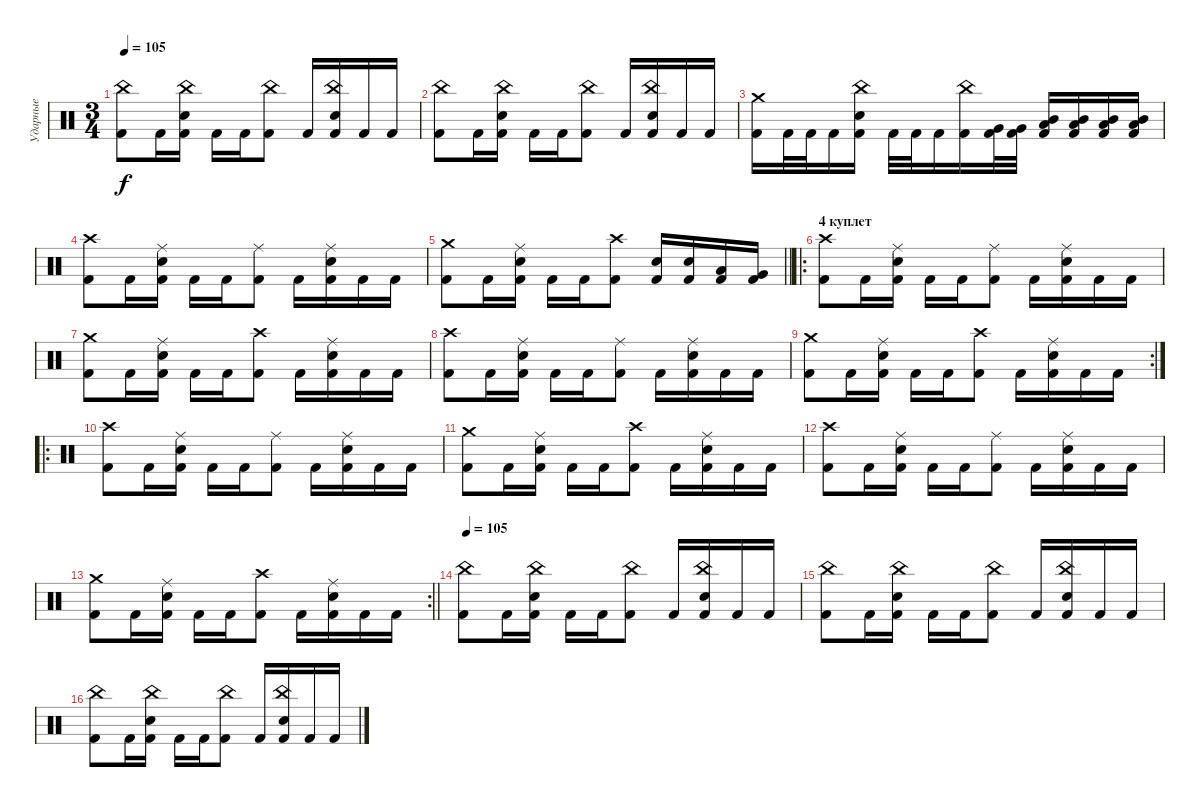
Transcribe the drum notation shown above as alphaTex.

\track ("Ударные" "Ударные") {instrument percussion}
\staff {score}
\articulation defaults
\ts (3 4)
\tempo 105
\clef neutral
\ks c
("Kick (hit) 2" "China (hit)").8{dy f} "Kick (hit) 2".16 ("Kick (hit) 2" "Snare (hit) 2" "China (hit)").16 "Kick (hit) 2".16 "Kick (hit) 2".16 ("Kick (hit) 2" "China (hit)").8 "Kick (hit) 2".16 ("Kick (hit) 2" "Snare (hit) 2" "China (hit)").16 "Kick (hit) 2".16 "Kick (hit) 2".16 |
("Kick (hit) 2" "China (hit)").8 "Kick (hit) 2".16 ("Kick (hit) 2" "Snare (hit) 2" "China (hit)").16 "Kick (hit) 2".16 "Kick (hit) 2".16 ("Kick (hit) 2" "China (hit)").8 "Kick (hit) 2".16 ("Kick (hit) 2" "Snare (hit) 2" "China (hit)").16 "Kick (hit) 2".16 "Kick (hit) 2".16 |
("Kick (hit) 2" "Crash medium (hit)").16 "Kick (hit) 2".32 "Kick (hit) 2".32 "Kick (hit) 2".16 ("Kick (hit) 2" "Snare (hit) 2" "China (hit)").16 "Kick (hit) 2".32 "Kick (hit) 2".32 "Kick (hit) 2".16 ("Kick (hit) 2" "China (hit)").16 ("Kick (hit) 2" "Very Low Tom (hit)").32 ("Kick (hit) 2" "Very Low Tom (hit)").32 ("Kick (hit) 2" "Low Tom (hit)" "Mid Tom (hit)").16 ("Kick (hit) 2" "Low Tom (hit)" "Mid Tom (hit)").16 ("Kick (hit) 2" "Low Tom (hit)" "Mid Tom (hit)").16 ("Kick (hit) 2" "Low Tom (hit)" "Mid Tom (hit)").16 |
("Kick (hit) 2" "Crash high (hit)").8 "Kick (hit) 2".16 ("Kick (hit) 2" "Snare (hit) 2" "Ride (middle)").16 "Kick (hit) 2".16 "Kick (hit) 2".16 ("Kick (hit) 2" "Ride (middle)").8 "Kick (hit) 2".16 ("Kick (hit) 2" "Snare (hit) 2" "Ride (middle)").16 "Kick (hit) 2".16 "Kick (hit) 2".16 |
\barLineRight lightlight
("Kick (hit) 2" "Crash medium (hit)").8 "Kick (hit) 2".16 ("Kick (hit) 2" "Snare (hit) 2" "Ride (middle)").16 "Kick (hit) 2".16 "Kick (hit) 2".16 ("Kick (hit) 2" "Crash high (hit)").8 ("Kick (hit) 2" "Snare (hit) 2").16 ("Kick (hit) 2" "Snare (hit) 2").16 ("Kick (hit) 2" "Low Tom (hit)").16 ("Kick (hit) 2" "Very Low Tom (hit)").16 |
\ro
\section ("" "4 куплет")
("Kick (hit) 2" "Crash high (hit)").8 "Kick (hit) 2".16 ("Kick (hit) 2" "Snare (hit) 2" "Ride (middle)").16 "Kick (hit) 2".16 "Kick (hit) 2".16 ("Kick (hit) 2" "Ride (middle)").8 "Kick (hit) 2".16 ("Kick (hit) 2" "Snare (hit) 2" "Ride (middle)").16 "Kick (hit) 2".16 "Kick (hit) 2".16 |
("Kick (hit) 2" "Crash medium (hit)").8 "Kick (hit) 2".16 ("Kick (hit) 2" "Snare (hit) 2" "Ride (middle)").16 "Kick (hit) 2".16 "Kick (hit) 2".16 ("Kick (hit) 2" "Crash high (hit)").8 "Kick (hit) 2".16 ("Kick (hit) 2" "Snare (hit) 2" "Ride (middle)").16 "Kick (hit) 2".16 "Kick (hit) 2".16 |
("Kick (hit) 2" "Crash high (hit)").8 "Kick (hit) 2".16 ("Kick (hit) 2" "Snare (hit) 2" "Ride (middle)").16 "Kick (hit) 2".16 "Kick (hit) 2".16 ("Kick (hit) 2" "Ride (middle)").8 "Kick (hit) 2".16 ("Kick (hit) 2" "Snare (hit) 2" "Ride (middle)").16 "Kick (hit) 2".16 "Kick (hit) 2".16 |
\rc 2
("Kick (hit) 2" "Crash medium (hit)").8 "Kick (hit) 2".16 ("Kick (hit) 2" "Snare (hit) 2" "Ride (middle)").16 "Kick (hit) 2".16 "Kick (hit) 2".16 ("Kick (hit) 2" "Crash high (hit)").8 "Kick (hit) 2".16 ("Kick (hit) 2" "Snare (hit) 2" "Ride (middle)").16 "Kick (hit) 2".16 "Kick (hit) 2".16 |
\ro
("Kick (hit) 2" "Crash high (hit)").8 "Kick (hit) 2".16 ("Kick (hit) 2" "Snare (hit) 2" "Ride (middle)").16 "Kick (hit) 2".16 "Kick (hit) 2".16 ("Kick (hit) 2" "Ride (middle)").8 "Kick (hit) 2".16 ("Kick (hit) 2" "Snare (hit) 2" "Ride (middle)").16 "Kick (hit) 2".16 "Kick (hit) 2".16 |
("Kick (hit) 2" "Crash medium (hit)").8 "Kick (hit) 2".16 ("Kick (hit) 2" "Snare (hit) 2" "Ride (middle)").16 "Kick (hit) 2".16 "Kick (hit) 2".16 ("Kick (hit) 2" "Crash high (hit)").8 "Kick (hit) 2".16 ("Kick (hit) 2" "Snare (hit) 2" "Ride (middle)").16 "Kick (hit) 2".16 "Kick (hit) 2".16 |
("Kick (hit) 2" "Crash high (hit)").8 "Kick (hit) 2".16 ("Kick (hit) 2" "Snare (hit) 2" "Ride (middle)").16 "Kick (hit) 2".16 "Kick (hit) 2".16 ("Kick (hit) 2" "Ride (middle)").8 "Kick (hit) 2".16 ("Kick (hit) 2" "Snare (hit) 2" "Ride (middle)").16 "Kick (hit) 2".16 "Kick (hit) 2".16 |
\rc 2
\barLineRight lightlight
("Kick (hit) 2" "Crash medium (hit)").8 "Kick (hit) 2".16 ("Kick (hit) 2" "Snare (hit) 2" "Ride (middle)").16 "Kick (hit) 2".16 "Kick (hit) 2".16 ("Kick (hit) 2" "Crash high (hit)").8 "Kick (hit) 2".16 ("Kick (hit) 2" "Snare (hit) 2" "Ride (middle)").16 "Kick (hit) 2".16 "Kick (hit) 2".16 |
\tempo 105
("Kick (hit) 2" "China (hit)").8 "Kick (hit) 2".16 ("Kick (hit) 2" "Snare (hit) 2" "China (hit)").16 "Kick (hit) 2".16 "Kick (hit) 2".16 ("Kick (hit) 2" "China (hit)").8 "Kick (hit) 2".16 ("Kick (hit) 2" "Snare (hit) 2" "China (hit)").16 "Kick (hit) 2".16 "Kick (hit) 2".16 |
("Kick (hit) 2" "China (hit)").8 "Kick (hit) 2".16 ("Kick (hit) 2" "Snare (hit) 2" "China (hit)").16 "Kick (hit) 2".16 "Kick (hit) 2".16 ("Kick (hit) 2" "China (hit)").8 "Kick (hit) 2".16 ("Kick (hit) 2" "Snare (hit) 2" "China (hit)").16 "Kick (hit) 2".16 "Kick (hit) 2".16 |
("Kick (hit) 2" "China (hit)").8 "Kick (hit) 2".16 ("Kick (hit) 2" "Snare (hit) 2" "China (hit)").16 "Kick (hit) 2".16 "Kick (hit) 2".16 ("Kick (hit) 2" "China (hit)").8 "Kick (hit) 2".16 ("Kick (hit) 2" "Snare (hit) 2" "China (hit)").16 "Kick (hit) 2".16 "Kick (hit) 2".16
